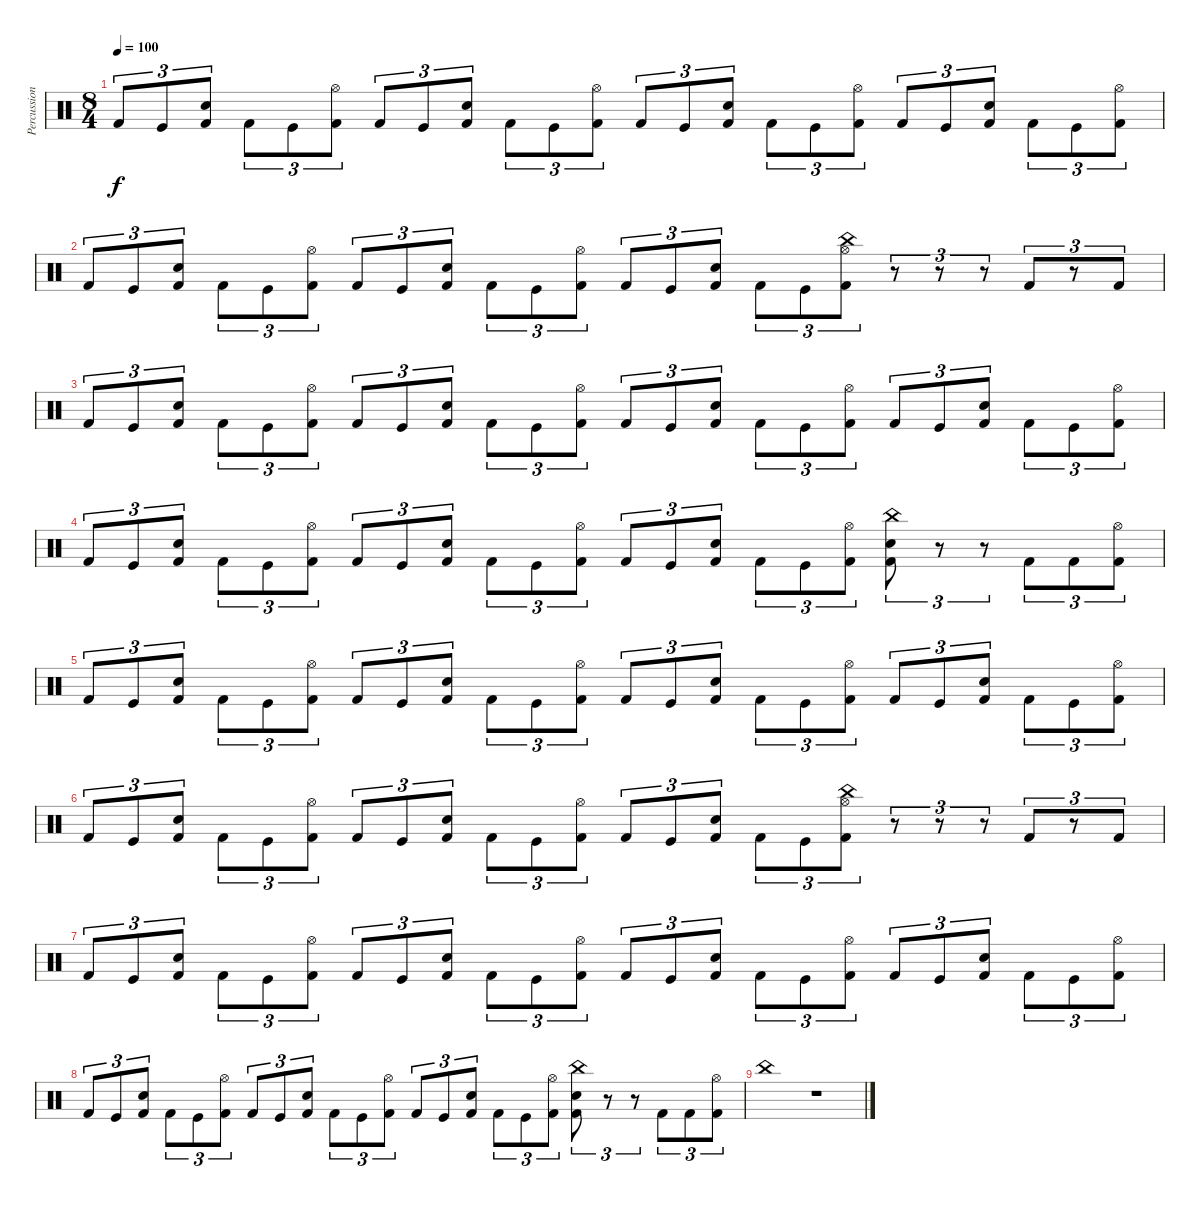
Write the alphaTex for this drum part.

\track ("Percussions" "Percussion") {instrument percussion}
\staff {score}
\articulation defaults
\ts (8 4)
\tempo 100
\clef neutral
\ks c "Kick (hit) 2".8{tu (3 2) dy f volume 12} "Kick (hit)".8{tu (3 2)}
("Electric Snare (hit)" "Kick (hit) 2").8{tu (3 2)} "Kick (hit) 2".8{tu (3 2)} "Kick (hit)".8{tu (3 2)} ("Hi-Hat (open)" "Kick (hit) 2").8{tu (3 2)} "Kick (hit) 2".8{tu (3 2)} "Kick (hit)".8{tu (3 2)} ("Electric Snare (hit)" "Kick (hit) 2").8{tu (3 2)} "Kick (hit) 2".8{tu (3 2)} "Kick (hit)".8{tu (3 2)} ("Hi-Hat (open)" "Kick (hit) 2").8{tu (3 2)} "Kick (hit) 2".8{tu (3 2)} "Kick (hit)".8{tu (3 2)} ("Electric Snare (hit)" "Kick (hit) 2").8{tu (3 2)} "Kick (hit) 2".8{tu (3 2)} "Kick (hit)".8{tu (3 2)} ("Hi-Hat (open)" "Kick (hit) 2").8{tu (3 2)} "Kick (hit) 2".8{tu (3 2)} "Kick (hit)".8{tu (3 2)} ("Electric Snare (hit)" "Kick (hit) 2").8{tu (3 2)} "Kick (hit) 2".8{tu (3 2)} "Kick (hit)".8{tu (3 2)} ("Hi-Hat (open)" "Kick (hit) 2").8{tu (3 2)} |
"Kick (hit) 2".8{tu (3 2)} "Kick (hit)".8{tu (3 2)} ("Electric Snare (hit)" "Kick (hit) 2").8{tu (3 2)} "Kick (hit) 2".8{tu (3 2)} "Kick (hit)".8{tu (3 2)} ("Hi-Hat (open)" "Kick (hit) 2").8{tu (3 2)} "Kick (hit) 2".8{tu (3 2)} "Kick (hit)".8{tu (3 2)} ("Electric Snare (hit)" "Kick (hit) 2").8{tu (3 2)} "Kick (hit) 2".8{tu (3 2)} "Kick (hit)".8{tu (3 2)} ("Hi-Hat (open)" "Kick (hit) 2").8{tu (3 2)} "Kick (hit) 2".8{tu (3 2)} "Kick (hit)".8{tu (3 2)} ("Electric Snare (hit)" "Kick (hit) 2").8{tu (3 2)} "Kick (hit) 2".8{tu (3 2)} "Kick (hit)".8{tu (3 2)} ("China (hit)" "Hi-Hat (open)" "Kick (hit) 2").8{tu (3 2)} r.8{tu (3 2)} r.8{tu (3 2)} r.8{tu (3 2)} "Kick (hit) 2".8{tu (3 2)} r.8{tu (3 2)} "Kick (hit) 2".8{tu (3 2)} |
"Kick (hit) 2".8{tu (3 2) volume 8} "Kick (hit)".8{tu (3 2)} ("Electric Snare (hit)" "Kick (hit) 2").8{tu (3 2)} "Kick (hit) 2".8{tu (3 2)} "Kick (hit)".8{tu (3 2)} ("Hi-Hat (open)" "Kick (hit) 2").8{tu (3 2)} "Kick (hit) 2".8{tu (3 2)} "Kick (hit)".8{tu (3 2)} ("Electric Snare (hit)" "Kick (hit) 2").8{tu (3 2)} "Kick (hit) 2".8{tu (3 2)} "Kick (hit)".8{tu (3 2)} ("Hi-Hat (open)" "Kick (hit) 2").8{tu (3 2)} "Kick (hit) 2".8{tu (3 2)} "Kick (hit)".8{tu (3 2)} ("Electric Snare (hit)" "Kick (hit) 2").8{tu (3 2)} "Kick (hit) 2".8{tu (3 2)} "Kick (hit)".8{tu (3 2)} ("Hi-Hat (open)" "Kick (hit) 2").8{tu (3 2)} "Kick (hit) 2".8{tu (3 2)} "Kick (hit)".8{tu (3 2)} ("Electric Snare (hit)" "Kick (hit) 2").8{tu (3 2)} "Kick (hit) 2".8{tu (3 2)} "Kick (hit)".8{tu (3 2)} ("Hi-Hat (open)" "Kick (hit) 2").8{tu (3 2)} |
"Kick (hit) 2".8{tu (3 2)} "Kick (hit)".8{tu (3 2)} ("Electric Snare (hit)" "Kick (hit) 2").8{tu (3 2)} "Kick (hit) 2".8{tu (3 2)} "Kick (hit)".8{tu (3 2)} ("Hi-Hat (open)" "Kick (hit) 2").8{tu (3 2)} "Kick (hit) 2".8{tu (3 2)} "Kick (hit)".8{tu (3 2)} ("Electric Snare (hit)" "Kick (hit) 2").8{tu (3 2)} "Kick (hit) 2".8{tu (3 2)} "Kick (hit)".8{tu (3 2)} ("Hi-Hat (open)" "Kick (hit) 2").8{tu (3 2)} "Kick (hit) 2".8{tu (3 2)} "Kick (hit)".8{tu (3 2)} ("Electric Snare (hit)" "Kick (hit) 2").8{tu (3 2)} "Kick (hit) 2".8{tu (3 2)} "Kick (hit)".8{tu (3 2)} ("Hi-Hat (open)" "Kick (hit) 2").8{tu (3 2)} ("China (hit)" "Electric Snare (hit)" "Kick (hit) 2").8{tu (3 2)} r.8{tu (3 2)} r.8{tu (3 2)} "Kick (hit) 2".8{tu (3 2)} "Kick (hit) 2".8{tu (3 2)} ("Hi-Hat (open)" "Kick (hit) 2").8{tu (3 2)} |
"Kick (hit) 2".8{tu (3 2) volume 4} "Kick (hit)".8{tu (3 2)} ("Electric Snare (hit)" "Kick (hit) 2").8{tu (3 2)} "Kick (hit) 2".8{tu (3 2)} "Kick (hit)".8{tu (3 2)} ("Hi-Hat (open)" "Kick (hit) 2").8{tu (3 2)} "Kick (hit) 2".8{tu (3 2)} "Kick (hit)".8{tu (3 2)} ("Electric Snare (hit)" "Kick (hit) 2").8{tu (3 2)} "Kick (hit) 2".8{tu (3 2)} "Kick (hit)".8{tu (3 2)} ("Hi-Hat (open)" "Kick (hit) 2").8{tu (3 2)} "Kick (hit) 2".8{tu (3 2)} "Kick (hit)".8{tu (3 2)} ("Electric Snare (hit)" "Kick (hit) 2").8{tu (3 2)} "Kick (hit) 2".8{tu (3 2)} "Kick (hit)".8{tu (3 2)} ("Hi-Hat (open)" "Kick (hit) 2").8{tu (3 2)} "Kick (hit) 2".8{tu (3 2)} "Kick (hit)".8{tu (3 2)} ("Electric Snare (hit)" "Kick (hit) 2").8{tu (3 2)} "Kick (hit) 2".8{tu (3 2)} "Kick (hit)".8{tu (3 2)} ("Hi-Hat (open)" "Kick (hit) 2").8{tu (3 2)} |
"Kick (hit) 2".8{tu (3 2)} "Kick (hit)".8{tu (3 2)} ("Electric Snare (hit)" "Kick (hit) 2").8{tu (3 2)} "Kick (hit) 2".8{tu (3 2)} "Kick (hit)".8{tu (3 2)} ("Hi-Hat (open)" "Kick (hit) 2").8{tu (3 2)} "Kick (hit) 2".8{tu (3 2)} "Kick (hit)".8{tu (3 2)} ("Electric Snare (hit)" "Kick (hit) 2").8{tu (3 2)} "Kick (hit) 2".8{tu (3 2)} "Kick (hit)".8{tu (3 2)} ("Hi-Hat (open)" "Kick (hit) 2").8{tu (3 2)} "Kick (hit) 2".8{tu (3 2)} "Kick (hit)".8{tu (3 2)} ("Electric Snare (hit)" "Kick (hit) 2").8{tu (3 2)} "Kick (hit) 2".8{tu (3 2)} "Kick (hit)".8{tu (3 2)} ("China (hit)" "Hi-Hat (open)" "Kick (hit) 2").8{tu (3 2)} r.8{tu (3 2)} r.8{tu (3 2)} r.8{tu (3 2)} "Kick (hit) 2".8{tu (3 2)} r.8{tu (3 2)} "Kick (hit) 2".8{tu (3 2)} |
"Kick (hit) 2".8{tu (3 2)} "Kick (hit)".8{tu (3 2)} ("Electric Snare (hit)" "Kick (hit) 2").8{tu (3 2)} "Kick (hit) 2".8{tu (3 2)} "Kick (hit)".8{tu (3 2)} ("Hi-Hat (open)" "Kick (hit) 2").8{tu (3 2)} "Kick (hit) 2".8{tu (3 2)} "Kick (hit)".8{tu (3 2)} ("Electric Snare (hit)" "Kick (hit) 2").8{tu (3 2)} "Kick (hit) 2".8{tu (3 2)} "Kick (hit)".8{tu (3 2)} ("Hi-Hat (open)" "Kick (hit) 2").8{tu (3 2)} "Kick (hit) 2".8{tu (3 2)} "Kick (hit)".8{tu (3 2)} ("Electric Snare (hit)" "Kick (hit) 2").8{tu (3 2)} "Kick (hit) 2".8{tu (3 2)} "Kick (hit)".8{tu (3 2)} ("Hi-Hat (open)" "Kick (hit) 2").8{tu (3 2)} "Kick (hit) 2".8{tu (3 2)} "Kick (hit)".8{tu (3 2)} ("Electric Snare (hit)" "Kick (hit) 2").8{tu (3 2)} "Kick (hit) 2".8{tu (3 2)} "Kick (hit)".8{tu (3 2)} ("Hi-Hat (open)" "Kick (hit) 2").8{tu (3 2)} |
"Kick (hit) 2".8{tu (3 2) volume 1} "Kick (hit)".8{tu (3 2)} ("Electric Snare (hit)" "Kick (hit) 2").8{tu (3 2)} "Kick (hit) 2".8{tu (3 2)} "Kick (hit)".8{tu (3 2)} ("Hi-Hat (open)" "Kick (hit) 2").8{tu (3 2)} "Kick (hit) 2".8{tu (3 2)} "Kick (hit)".8{tu (3 2)} ("Electric Snare (hit)" "Kick (hit) 2").8{tu (3 2)} "Kick (hit) 2".8{tu (3 2)} "Kick (hit)".8{tu (3 2)} ("Hi-Hat (open)" "Kick (hit) 2").8{tu (3 2)} "Kick (hit) 2".8{tu (3 2)} "Kick (hit)".8{tu (3 2)} ("Electric Snare (hit)" "Kick (hit) 2").8{tu (3 2)} "Kick (hit) 2".8{tu (3 2)} "Kick (hit)".8{tu (3 2)} ("Hi-Hat (open)" "Kick (hit) 2").8{tu (3 2)} ("China (hit)" "Electric Snare (hit)" "Kick (hit) 2").8{tu (3 2)} r.8{tu (3 2)} r.8{tu (3 2)} "Kick (hit) 2".8{tu (3 2)} "Kick (hit) 2".8{tu (3 2)} ("Hi-Hat (open)" "Kick (hit) 2").8{tu (3 2)} |
"China (hit)".1 r.1{volume 0}
